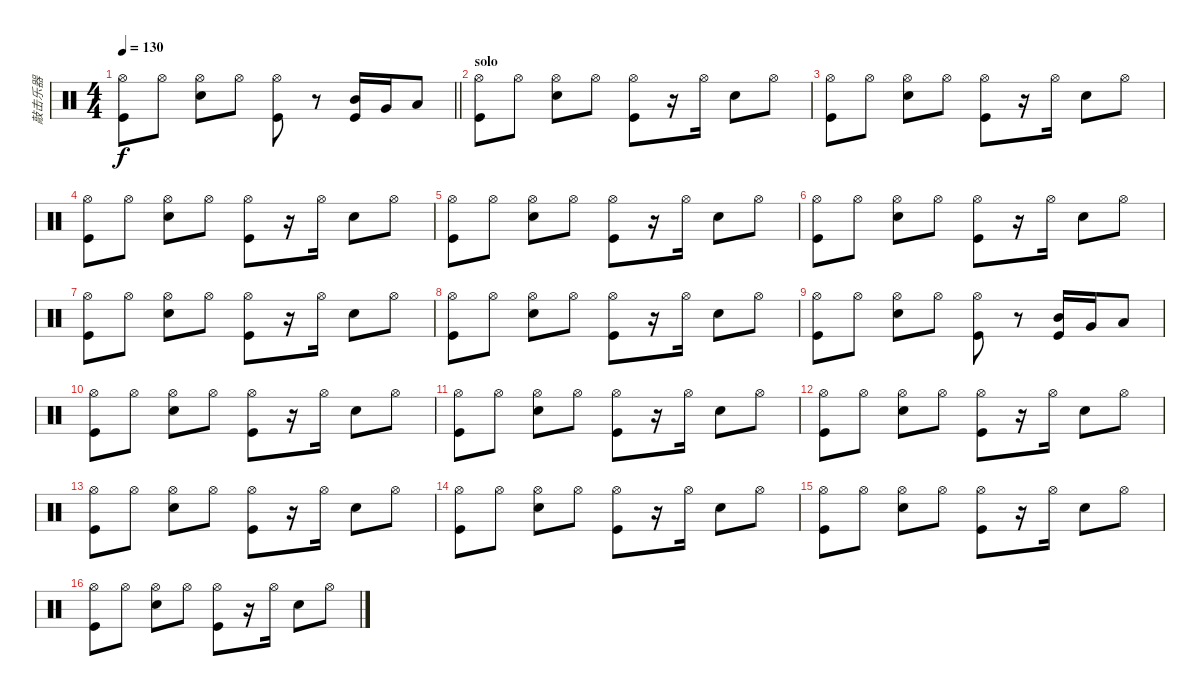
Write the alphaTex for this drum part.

\track ("敲击乐器" "敲击乐器") {instrument percussion}
\staff {score}
\articulation defaults
\ts (4 4)
\tempo 130
\clef neutral
\barLineRight lightlight
\ks c
("Hi-Hat (open)" "Kick (hit)").8{dy f} "Hi-Hat (open)".8 ("Hi-Hat (open)" "Snare (hit) 2").8 "Hi-Hat (open)".8 ("Hi-Hat (open)" "Kick (hit)").8 r.8 ("Mid Tom (hit)" "Kick (hit)").16 "Very Low Tom (hit)".16 "Low Floor Tom (hit)".8 |
\section ("" "solo")
("Hi-Hat (open)" "Kick (hit)").8 "Hi-Hat (open)".8 ("Hi-Hat (open)" "Snare (hit) 2").8 "Hi-Hat (open)".8 ("Hi-Hat (open)" "Kick (hit)").8 r.16 "Hi-Hat (open)".16 "Snare (hit) 2".8 "Hi-Hat (open)".8 |
("Hi-Hat (open)" "Kick (hit)").8 "Hi-Hat (open)".8 ("Hi-Hat (open)" "Snare (hit) 2").8 "Hi-Hat (open)".8 ("Hi-Hat (open)" "Kick (hit)").8 r.16 "Hi-Hat (open)".16 "Snare (hit) 2".8 "Hi-Hat (open)".8 |
("Hi-Hat (open)" "Kick (hit)").8 "Hi-Hat (open)".8 ("Hi-Hat (open)" "Snare (hit) 2").8 "Hi-Hat (open)".8 ("Hi-Hat (open)" "Kick (hit)").8 r.16 "Hi-Hat (open)".16 "Snare (hit) 2".8 "Hi-Hat (open)".8 |
("Hi-Hat (open)" "Kick (hit)").8 "Hi-Hat (open)".8 ("Hi-Hat (open)" "Snare (hit) 2").8 "Hi-Hat (open)".8 ("Hi-Hat (open)" "Kick (hit)").8 r.16 "Hi-Hat (open)".16 "Snare (hit) 2".8 "Hi-Hat (open)".8 |
("Hi-Hat (open)" "Kick (hit)").8 "Hi-Hat (open)".8 ("Hi-Hat (open)" "Snare (hit) 2").8 "Hi-Hat (open)".8 ("Hi-Hat (open)" "Kick (hit)").8 r.16 "Hi-Hat (open)".16 "Snare (hit) 2".8 "Hi-Hat (open)".8 |
("Hi-Hat (open)" "Kick (hit)").8 "Hi-Hat (open)".8 ("Hi-Hat (open)" "Snare (hit) 2").8 "Hi-Hat (open)".8 ("Hi-Hat (open)" "Kick (hit)").8 r.16 "Hi-Hat (open)".16 "Snare (hit) 2".8 "Hi-Hat (open)".8 |
("Hi-Hat (open)" "Kick (hit)").8 "Hi-Hat (open)".8 ("Hi-Hat (open)" "Snare (hit) 2").8 "Hi-Hat (open)".8 ("Hi-Hat (open)" "Kick (hit)").8 r.16 "Hi-Hat (open)".16 "Snare (hit) 2".8 "Hi-Hat (open)".8 |
("Hi-Hat (open)" "Kick (hit)").8 "Hi-Hat (open)".8 ("Hi-Hat (open)" "Snare (hit) 2").8 "Hi-Hat (open)".8 ("Hi-Hat (open)" "Kick (hit)").8 r.8 ("Mid Tom (hit)" "Kick (hit)").16 "Very Low Tom (hit)".16 "Low Floor Tom (hit)".8 |
("Hi-Hat (open)" "Kick (hit)").8 "Hi-Hat (open)".8 ("Hi-Hat (open)" "Snare (hit) 2").8 "Hi-Hat (open)".8 ("Hi-Hat (open)" "Kick (hit)").8 r.16 "Hi-Hat (open)".16 "Snare (hit) 2".8 "Hi-Hat (open)".8 |
("Hi-Hat (open)" "Kick (hit)").8 "Hi-Hat (open)".8 ("Hi-Hat (open)" "Snare (hit) 2").8 "Hi-Hat (open)".8 ("Hi-Hat (open)" "Kick (hit)").8 r.16 "Hi-Hat (open)".16 "Snare (hit) 2".8 "Hi-Hat (open)".8 |
("Hi-Hat (open)" "Kick (hit)").8 "Hi-Hat (open)".8 ("Hi-Hat (open)" "Snare (hit) 2").8 "Hi-Hat (open)".8 ("Hi-Hat (open)" "Kick (hit)").8 r.16 "Hi-Hat (open)".16 "Snare (hit) 2".8 "Hi-Hat (open)".8 |
("Hi-Hat (open)" "Kick (hit)").8 "Hi-Hat (open)".8 ("Hi-Hat (open)" "Snare (hit) 2").8 "Hi-Hat (open)".8 ("Hi-Hat (open)" "Kick (hit)").8 r.16 "Hi-Hat (open)".16 "Snare (hit) 2".8 "Hi-Hat (open)".8 |
("Hi-Hat (open)" "Kick (hit)").8 "Hi-Hat (open)".8 ("Hi-Hat (open)" "Snare (hit) 2").8 "Hi-Hat (open)".8 ("Hi-Hat (open)" "Kick (hit)").8 r.16 "Hi-Hat (open)".16 "Snare (hit) 2".8 "Hi-Hat (open)".8 |
("Hi-Hat (open)" "Kick (hit)").8 "Hi-Hat (open)".8 ("Hi-Hat (open)" "Snare (hit) 2").8 "Hi-Hat (open)".8 ("Hi-Hat (open)" "Kick (hit)").8 r.16 "Hi-Hat (open)".16 "Snare (hit) 2".8 "Hi-Hat (open)".8 |
("Hi-Hat (open)" "Kick (hit)").8 "Hi-Hat (open)".8 ("Hi-Hat (open)" "Snare (hit) 2").8 "Hi-Hat (open)".8 ("Hi-Hat (open)" "Kick (hit)").8 r.16 "Hi-Hat (open)".16 "Snare (hit) 2".8 "Hi-Hat (open)".8
